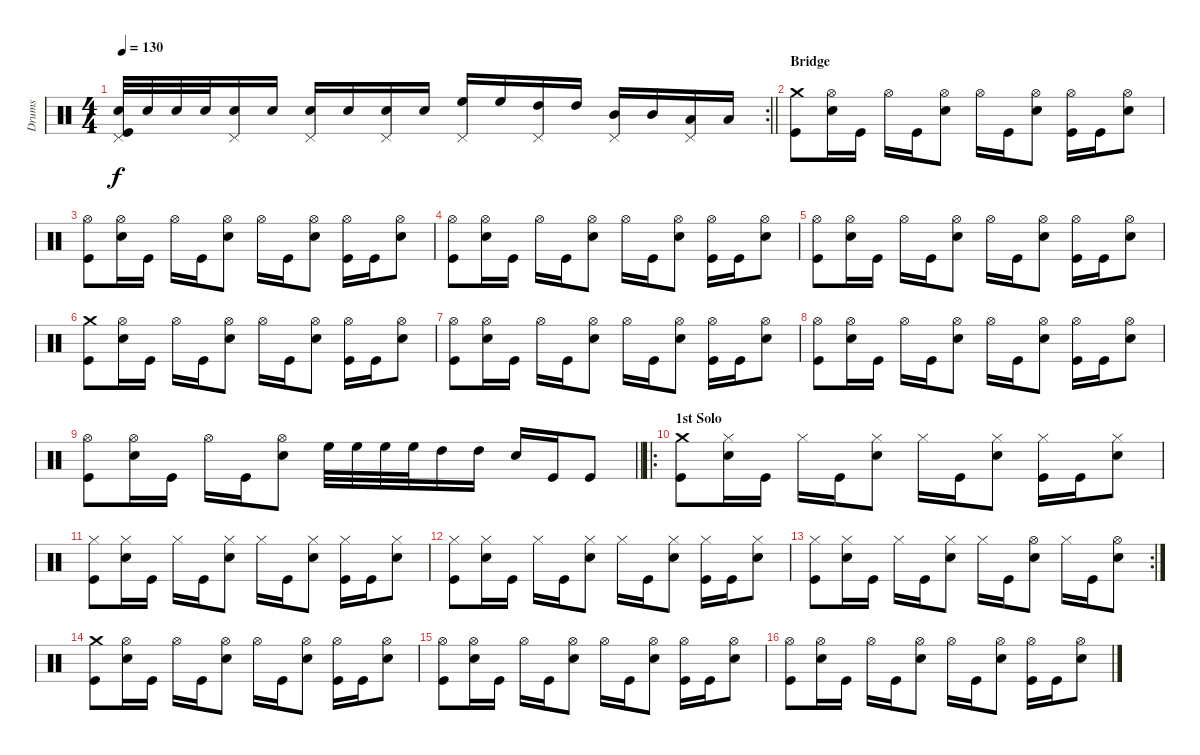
\track ("Drums" "Drums") {instrument percussion}
\staff {score}
\articulation defaults
\rc 2
\ts (4 4)
\tempo 130
\clef neutral
\barLineRight lightlight
\ks c
("Snare (hit) 2" "Pedal Hi-Hat (hit)" "Kick (hit)").32{dy f} "Snare (hit) 2".32 "Snare (hit) 2".32 "Snare (hit) 2".32 ("Snare (hit) 2" "Pedal Hi-Hat (hit)").16 "Snare (hit) 2".16 ("Snare (hit) 2" "Pedal Hi-Hat (hit)").16 "Snare (hit) 2".16 ("Snare (hit) 2" "Pedal Hi-Hat (hit)").16 "Snare (hit) 2".16 ("High Floor Tom (hit)" "Pedal Hi-Hat (hit)").16 "High Floor Tom (hit)".16 ("High Tom (hit)" "Pedal Hi-Hat (hit)").16 "High Tom (hit)".16 ("Mid Tom (hit)" "Pedal Hi-Hat (hit)").16 "Mid Tom (hit)".16 ("Low Tom (hit)" "Pedal Hi-Hat (hit)").16 "Low Tom (hit)".16 |
\section ("" "Bridge")
("Crash medium (hit)" "Kick (hit)").8 ("Hi-Hat (open)" "Snare (hit) 2").16 "Kick (hit)".16 "Hi-Hat (open)".16 "Kick (hit)".16 ("Hi-Hat (open)" "Snare (hit) 2").8 "Hi-Hat (open)".16 "Kick (hit)".16 ("Hi-Hat (open)" "Snare (hit) 2").8 ("Hi-Hat (open)" "Kick (hit)").16 "Kick (hit)".16 ("Hi-Hat (open)" "Snare (hit) 2").8 |
("Hi-Hat (open)" "Kick (hit)").8 ("Hi-Hat (open)" "Snare (hit) 2").16 "Kick (hit)".16 "Hi-Hat (open)".16 "Kick (hit)".16 ("Hi-Hat (open)" "Snare (hit) 2").8 "Hi-Hat (open)".16 "Kick (hit)".16 ("Hi-Hat (open)" "Snare (hit) 2").8 ("Hi-Hat (open)" "Kick (hit)").16 "Kick (hit)".16 ("Hi-Hat (open)" "Snare (hit) 2").8 |
("Hi-Hat (open)" "Kick (hit)").8 ("Hi-Hat (open)" "Snare (hit) 2").16 "Kick (hit)".16 "Hi-Hat (open)".16 "Kick (hit)".16 ("Hi-Hat (open)" "Snare (hit) 2").8 "Hi-Hat (open)".16 "Kick (hit)".16 ("Hi-Hat (open)" "Snare (hit) 2").8 ("Hi-Hat (open)" "Kick (hit)").16 "Kick (hit)".16 ("Hi-Hat (open)" "Snare (hit) 2").8 |
("Hi-Hat (open)" "Kick (hit)").8 ("Hi-Hat (open)" "Snare (hit) 2").16 "Kick (hit)".16 "Hi-Hat (open)".16 "Kick (hit)".16 ("Hi-Hat (open)" "Snare (hit) 2").8 "Hi-Hat (open)".16 "Kick (hit)".16 ("Hi-Hat (open)" "Snare (hit) 2").8 ("Hi-Hat (open)" "Kick (hit)").16 "Kick (hit)".16 ("Hi-Hat (open)" "Snare (hit) 2").8 |
("Crash medium (hit)" "Kick (hit)").8 ("Hi-Hat (open)" "Snare (hit) 2").16 "Kick (hit)".16 "Hi-Hat (open)".16 "Kick (hit)".16 ("Hi-Hat (open)" "Snare (hit) 2").8 "Hi-Hat (open)".16 "Kick (hit)".16 ("Hi-Hat (open)" "Snare (hit) 2").8 ("Hi-Hat (open)" "Kick (hit)").16 "Kick (hit)".16 ("Hi-Hat (open)" "Snare (hit) 2").8 |
("Hi-Hat (open)" "Kick (hit)").8 ("Hi-Hat (open)" "Snare (hit) 2").16 "Kick (hit)".16 "Hi-Hat (open)".16 "Kick (hit)".16 ("Hi-Hat (open)" "Snare (hit) 2").8 "Hi-Hat (open)".16 "Kick (hit)".16 ("Hi-Hat (open)" "Snare (hit) 2").8 ("Hi-Hat (open)" "Kick (hit)").16 "Kick (hit)".16 ("Hi-Hat (open)" "Snare (hit) 2").8 |
("Hi-Hat (open)" "Kick (hit)").8 ("Hi-Hat (open)" "Snare (hit) 2").16 "Kick (hit)".16 "Hi-Hat (open)".16 "Kick (hit)".16 ("Hi-Hat (open)" "Snare (hit) 2").8 "Hi-Hat (open)".16 "Kick (hit)".16 ("Hi-Hat (open)" "Snare (hit) 2").8 ("Hi-Hat (open)" "Kick (hit)").16 "Kick (hit)".16 ("Hi-Hat (open)" "Snare (hit) 2").8 |
\barLineRight lightlight
("Hi-Hat (open)" "Kick (hit)").8 ("Hi-Hat (open)" "Snare (hit) 2").16 "Kick (hit)".16 "Hi-Hat (open)".16 "Kick (hit)".16 ("Hi-Hat (open)" "Snare (hit) 2").8 "High Floor Tom (hit)".32 "High Floor Tom (hit)".32 "High Floor Tom (hit)".32 "High Floor Tom (hit)".32 "High Tom (hit)".16 "High Tom (hit)".16 "Snare (hit) 2".16 "Kick (hit)".16 "Kick (hit)".8 |
\ro
\section ("" "1st Solo")
("Crash medium (hit)" "Kick (hit)").8 ("Hi-Hat (closed)" "Snare (hit) 2").16 "Kick (hit)".16 "Hi-Hat (closed)".16 "Kick (hit)".16 ("Hi-Hat (closed)" "Snare (hit) 2").8 "Hi-Hat (closed)".16 "Kick (hit)".16 ("Hi-Hat (closed)" "Snare (hit) 2").8 ("Hi-Hat (closed)" "Kick (hit)").16 "Kick (hit)".16 ("Hi-Hat (closed)" "Snare (hit) 2").8 |
("Hi-Hat (closed)" "Kick (hit)").8 ("Hi-Hat (closed)" "Snare (hit) 2").16 "Kick (hit)".16 "Hi-Hat (closed)".16 "Kick (hit)".16 ("Hi-Hat (closed)" "Snare (hit) 2").8 "Hi-Hat (closed)".16 "Kick (hit)".16 ("Hi-Hat (closed)" "Snare (hit) 2").8 ("Hi-Hat (closed)" "Kick (hit)").16 "Kick (hit)".16 ("Hi-Hat (closed)" "Snare (hit) 2").8 |
("Hi-Hat (closed)" "Kick (hit)").8 ("Hi-Hat (closed)" "Snare (hit) 2").16 "Kick (hit)".16 "Hi-Hat (closed)".16 "Kick (hit)".16 ("Hi-Hat (closed)" "Snare (hit) 2").8 "Hi-Hat (closed)".16 "Kick (hit)".16 ("Hi-Hat (closed)" "Snare (hit) 2").8 ("Hi-Hat (closed)" "Kick (hit)").16 "Kick (hit)".16 ("Hi-Hat (closed)" "Snare (hit) 2").8 |
\rc 2
("Hi-Hat (closed)" "Kick (hit)").8 ("Hi-Hat (closed)" "Snare (hit) 2").16 "Kick (hit)".16 "Hi-Hat (closed)".16 "Kick (hit)".16 ("Hi-Hat (closed)" "Snare (hit) 2").8 "Hi-Hat (closed)".16 "Kick (hit)".16 ("Hi-Hat (open)" "Snare (hit) 2").8 "Hi-Hat (closed)".16 "Kick (hit)".16 ("Hi-Hat (open)" "Snare (hit) 2").8 |
("Crash medium (hit)" "Kick (hit)").8 ("Hi-Hat (open)" "Snare (hit) 2").16 "Kick (hit)".16 "Hi-Hat (open)".16 "Kick (hit)".16 ("Hi-Hat (open)" "Snare (hit) 2").8 "Hi-Hat (open)".16 "Kick (hit)".16 ("Hi-Hat (open)" "Snare (hit) 2").8 ("Hi-Hat (open)" "Kick (hit)").16 "Kick (hit)".16 ("Hi-Hat (open)" "Snare (hit) 2").8 |
("Hi-Hat (open)" "Kick (hit)").8 ("Hi-Hat (open)" "Snare (hit) 2").16 "Kick (hit)".16 "Hi-Hat (open)".16 "Kick (hit)".16 ("Hi-Hat (open)" "Snare (hit) 2").8 "Hi-Hat (open)".16 "Kick (hit)".16 ("Hi-Hat (open)" "Snare (hit) 2").8 ("Hi-Hat (open)" "Kick (hit)").16 "Kick (hit)".16 ("Hi-Hat (open)" "Snare (hit) 2").8 |
("Hi-Hat (open)" "Kick (hit)").8 ("Hi-Hat (open)" "Snare (hit) 2").16 "Kick (hit)".16 "Hi-Hat (open)".16 "Kick (hit)".16 ("Hi-Hat (open)" "Snare (hit) 2").8 "Hi-Hat (open)".16 "Kick (hit)".16 ("Hi-Hat (open)" "Snare (hit) 2").8 ("Hi-Hat (open)" "Kick (hit)").16 "Kick (hit)".16 ("Hi-Hat (open)" "Snare (hit) 2").8
